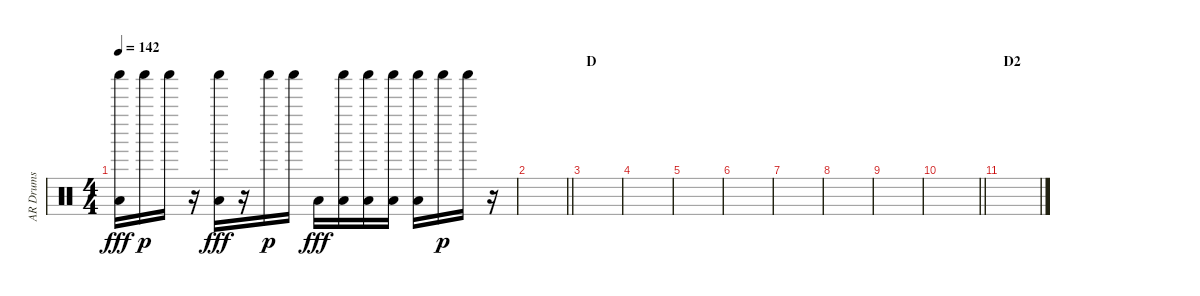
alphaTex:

\track ("AR Drums" "AR Drums") {instrument percussion}
\staff {score}
\articulation defaults
\ts (4 4)
\tempo 142
\clef neutral
\ks c
("Shaker (hit)" "Low Floor Tom (hit)").16{dy fff} "Shaker (hit)".16{dy p} "Shaker (hit)".16 r.16 ("Shaker (hit)" "Low Floor Tom (hit)").16{dy fff} r.16 "Shaker (hit)".16{dy p} "Shaker (hit)".16 "Low Floor Tom (hit)".16{dy fff} ("Shaker (hit)" "Low Floor Tom (hit)").16 ("Shaker (hit)" "Low Floor Tom (hit)").16 ("Shaker (hit)" "Low Floor Tom (hit)").16 ("Shaker (hit)" "Low Floor Tom (hit)").16 "Shaker (hit)".16{dy p} "Shaker (hit)".16 r.16 |
\barLineRight lightlight
|
\section ("" "D")
|
|
|
|
|
|
|
\barLineRight lightlight
|
\section ("" "D2")
